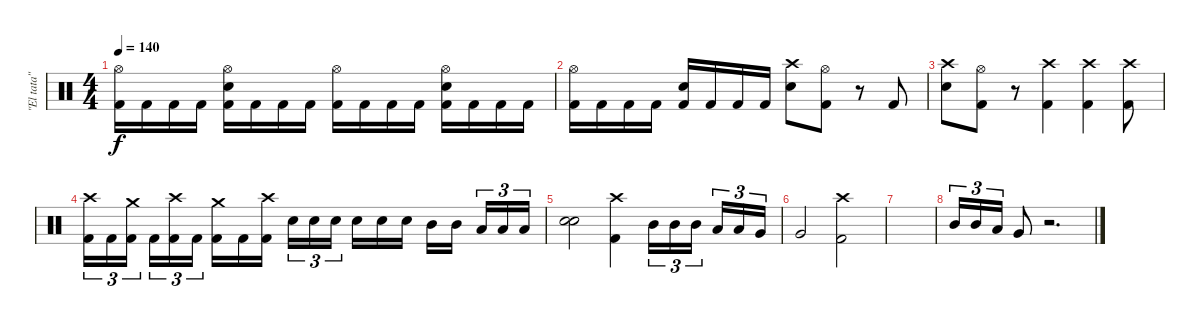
\track ("\"El tata\"" "\"El tata\"") {instrument percussion}
\staff {score}
\articulation defaults
\ts (4 4)
\tempo 140
\clef neutral
\ks c
("Hi-Hat (open)" "Kick (hit) 2").16{dy f} "Kick (hit) 2".16 "Kick (hit) 2".16 "Kick (hit) 2".16 ("Hi-Hat (open)" "Electric Snare (hit)" "Kick (hit) 2").16 "Kick (hit) 2".16 "Kick (hit) 2".16 "Kick (hit) 2".16 ("Hi-Hat (open)" "Kick (hit) 2").16 "Kick (hit) 2".16 "Kick (hit) 2".16 "Kick (hit) 2".16 ("Hi-Hat (open)" "Electric Snare (hit)" "Kick (hit) 2").16 "Kick (hit) 2".16 "Kick (hit) 2".16 "Kick (hit) 2".16 |
("Hi-Hat (open)" "Kick (hit) 2").16 "Kick (hit) 2".16 "Kick (hit) 2".16 "Kick (hit) 2".16 ("Electric Snare (hit)" "Kick (hit) 2").16 "Kick (hit) 2".16 "Kick (hit) 2".16 "Kick (hit) 2".16 ("Crash high (hit)" "Electric Snare (hit)").8 ("Hi-Hat (open)" "Kick (hit) 2").8 r.8 "Kick (hit) 2".8 |
("Crash high (hit)" "Electric Snare (hit)").8 ("Hi-Hat (open)" "Kick (hit) 2").8 r.8 ("Crash high (hit)" "Kick (hit) 2").4 ("Crash high (hit)" "Kick (hit) 2").4 ("Crash high (hit)" "Kick (hit) 2").8 |
("Crash high (hit)" "Kick (hit) 2").16{tu (3 2)} "Kick (hit) 2".16{tu (3 2)} ("Crash medium (hit)" "Kick (hit) 2").16{tu (3 2)} "Kick (hit) 2".16{tu (3 2)} ("Crash high (hit)" "Kick (hit) 2").16{tu (3 2)} "Kick (hit) 2".16{tu (3 2)} ("Crash medium (hit)" "Kick (hit) 2").16 "Kick (hit) 2".16 ("Crash high (hit)" "Kick (hit) 2").16 "Electric Snare (hit)".16{tu (3 2)} "Electric Snare (hit)".16{tu (3 2)} "Electric Snare (hit)".16{tu (3 2)} "Electric Snare (hit)".16 "Electric Snare (hit)".16 "Electric Snare (hit)".16 "Mid Tom (hit)".16 "Mid Tom (hit)".16 "Low Tom (hit)".16{tu (3 2)} "Low Tom (hit)".16{tu (3 2)} "Low Tom (hit)".16{tu (3 2)} |
("Electric Snare (hit)" "Electric Snare (hit)").2 ("Crash high (hit)" "Kick (hit) 2").4 "Mid Tom (hit)".16{tu (3 2)} "Mid Tom (hit)".16{tu (3 2)} "Mid Tom (hit)".16{tu (3 2)} "Low Tom (hit)".16{tu (3 2)} "Low Tom (hit)".16{tu (3 2)} "Very Low Tom (hit)".16{tu (3 2)} |
"Very Low Tom (hit)".2 ("Crash high (hit)" "Kick (hit) 2").2 |
|
"Mid Tom (hit)".16{tu (3 2)} "Mid Tom (hit)".16{tu (3 2)} "Low Tom (hit)".16{tu (3 2)} "Very Low Tom (hit)".8 r.2{d}
